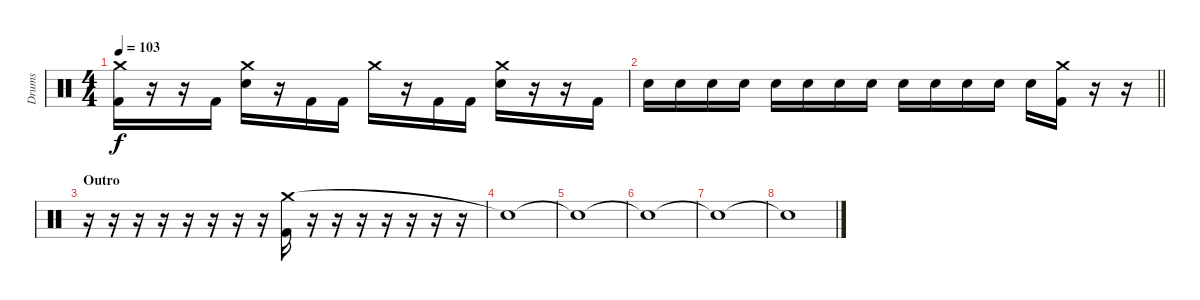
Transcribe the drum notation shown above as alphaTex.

\track ("Drums" "Drums") {instrument percussion}
\staff {score}
\articulation defaults
\ts (4 4)
\tempo 103
\clef neutral
\ks c
("Crash medium (hit)" "Kick (hit) 2").16{dy f} r.16 r.16 "Kick (hit) 2".16 ("Crash medium (hit)" "Electric Snare (hit)").16 r.16 "Kick (hit) 2".16 "Kick (hit) 2".16 "Crash medium (hit)".16 r.16 "Kick (hit) 2".16 "Kick (hit) 2".16 ("Crash medium (hit)" "Electric Snare (hit)").16 r.16 r.16 "Kick (hit) 2".16 |
\barLineRight lightlight "Electric Snare (hit)".16 "Electric Snare (hit)".16 "Electric Snare (hit)".16 "Electric Snare (hit)".16 "Electric Snare (hit)".16 "Electric Snare (hit)".16 "Electric Snare (hit)".16 "Electric Snare (hit)".16 "Electric Snare (hit)".16 "Electric Snare (hit)".16 "Electric Snare (hit)".16 "Electric Snare (hit)".16 "Electric Snare (hit)".16
("Crash medium (hit)" "Kick (hit) 2").16 r.16 r.16 |
\section ("" "Outro")
r.16 r.16 r.16 r.16 r.16 r.16 r.16 r.16 ("Crash medium (hit)" "Kick (hit) 2").16 r.16 r.16 r.16 r.16 r.16 r.16 r.16 |
"Snare (hit)"{t}.1 |
"Snare (hit)"{t}.1 |
"Snare (hit)"{t}.1 |
"Snare (hit)"{t}.1 |
"Snare (hit)"{t}.1
